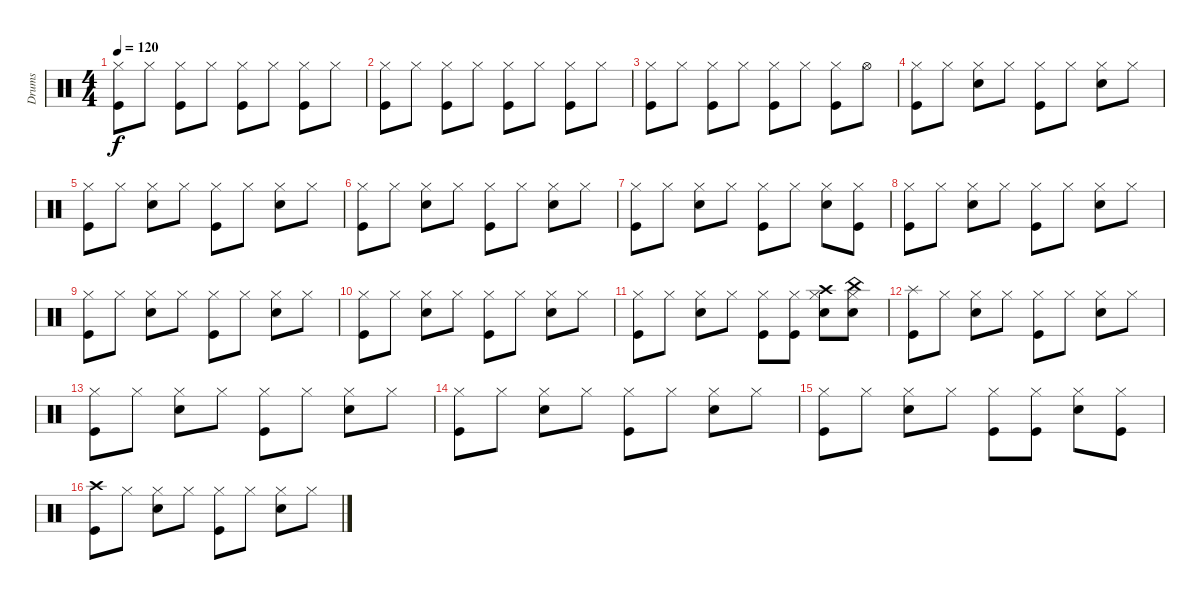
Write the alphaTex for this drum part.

\track ("Drums" "Drums") {instrument percussion}
\staff {score}
\articulation defaults
\ts (4 4)
\tempo 120
\clef neutral
\ks c
("Hi-Hat (closed)" "Kick (hit)").8{dy f} "Hi-Hat (closed)".8 ("Hi-Hat (closed)" "Kick (hit)").8 "Hi-Hat (closed)".8 ("Hi-Hat (closed)" "Kick (hit)").8 "Hi-Hat (closed)".8 ("Hi-Hat (closed)" "Kick (hit)").8 "Hi-Hat (closed)".8 |
("Hi-Hat (closed)" "Kick (hit)").8 "Hi-Hat (closed)".8 ("Hi-Hat (closed)" "Kick (hit)").8 "Hi-Hat (closed)".8 ("Hi-Hat (closed)" "Kick (hit)").8 "Hi-Hat (closed)".8 ("Hi-Hat (closed)" "Kick (hit)").8 "Hi-Hat (closed)".8 |
("Hi-Hat (closed)" "Kick (hit)").8 "Hi-Hat (closed)".8 ("Hi-Hat (closed)" "Kick (hit)").8 "Hi-Hat (closed)".8 ("Hi-Hat (closed)" "Kick (hit)").8 "Hi-Hat (closed)".8 ("Hi-Hat (closed)" "Kick (hit)").8 "Hi-Hat (open)".8 |
("Hi-Hat (closed)" "Kick (hit)").8 "Hi-Hat (closed)".8 ("Hi-Hat (closed)" "Snare (hit) 2").8 "Hi-Hat (closed)".8 ("Hi-Hat (closed)" "Kick (hit)").8 "Hi-Hat (closed)".8 ("Hi-Hat (closed)" "Snare (hit) 2").8 "Hi-Hat (closed)".8 |
("Hi-Hat (closed)" "Kick (hit)").8 "Hi-Hat (closed)".8 ("Hi-Hat (closed)" "Snare (hit) 2").8 "Hi-Hat (closed)".8 ("Hi-Hat (closed)" "Kick (hit)").8 "Hi-Hat (closed)".8 ("Hi-Hat (closed)" "Snare (hit) 2").8 "Hi-Hat (closed)".8 |
("Hi-Hat (closed)" "Kick (hit)").8 "Hi-Hat (closed)".8 ("Hi-Hat (closed)" "Snare (hit) 2").8 "Hi-Hat (closed)".8 ("Hi-Hat (closed)" "Kick (hit)").8 "Hi-Hat (closed)".8 ("Hi-Hat (closed)" "Snare (hit) 2").8 "Hi-Hat (closed)".8 |
("Hi-Hat (closed)" "Kick (hit)").8 "Hi-Hat (closed)".8 ("Hi-Hat (closed)" "Snare (hit) 2").8 "Hi-Hat (closed)".8 ("Hi-Hat (closed)" "Kick (hit)").8 "Hi-Hat (closed)".8 ("Hi-Hat (closed)" "Snare (hit) 2").8 ("Hi-Hat (closed)" "Kick (hit)").8 |
("Hi-Hat (closed)" "Kick (hit)").8 "Hi-Hat (closed)".8 ("Hi-Hat (closed)" "Snare (hit) 2").8 "Hi-Hat (closed)".8 ("Hi-Hat (closed)" "Kick (hit)").8 "Hi-Hat (closed)".8 ("Hi-Hat (closed)" "Snare (hit) 2").8 "Hi-Hat (closed)".8 |
("Hi-Hat (closed)" "Kick (hit)").8 "Hi-Hat (closed)".8 ("Hi-Hat (closed)" "Snare (hit) 2").8 "Hi-Hat (closed)".8 ("Hi-Hat (closed)" "Kick (hit)").8 "Hi-Hat (closed)".8 ("Hi-Hat (closed)" "Snare (hit) 2").8 "Hi-Hat (closed)".8 |
("Hi-Hat (closed)" "Kick (hit)").8 "Hi-Hat (closed)".8 ("Hi-Hat (closed)" "Snare (hit) 2").8 "Hi-Hat (closed)".8 ("Hi-Hat (closed)" "Kick (hit)").8 "Hi-Hat (closed)".8 ("Hi-Hat (closed)" "Snare (hit) 2").8 "Hi-Hat (closed)".8 |
("Hi-Hat (closed)" "Kick (hit)").8 "Hi-Hat (closed)".8 ("Hi-Hat (closed)" "Snare (hit) 2").8 "Hi-Hat (closed)".8 ("Hi-Hat (closed)" "Kick (hit)").8 ("Hi-Hat (closed)" "Kick (hit)").8 ("Hi-Hat (closed)" "Snare (hit) 2" "Crash high (hit)").8 ("Hi-Hat (closed)" "Snare (hit) 2" "China (hit)").8 |
("Kick (hit)" "Splash (hit)").8 "Hi-Hat (closed)".8 ("Hi-Hat (closed)" "Snare (hit) 2").8 "Hi-Hat (closed)".8 ("Hi-Hat (closed)" "Kick (hit)").8 "Hi-Hat (closed)".8 ("Hi-Hat (closed)" "Snare (hit) 2").8 "Hi-Hat (closed)".8 |
("Hi-Hat (closed)" "Kick (hit)").8 "Hi-Hat (closed)".8 ("Hi-Hat (closed)" "Snare (hit) 2").8 "Hi-Hat (closed)".8 ("Hi-Hat (closed)" "Kick (hit)").8 "Hi-Hat (closed)".8 ("Hi-Hat (closed)" "Snare (hit) 2").8 "Hi-Hat (closed)".8 |
("Hi-Hat (closed)" "Kick (hit)").8 "Hi-Hat (closed)".8 ("Hi-Hat (closed)" "Snare (hit) 2").8 "Hi-Hat (closed)".8 ("Hi-Hat (closed)" "Kick (hit)").8 "Hi-Hat (closed)".8 ("Hi-Hat (closed)" "Snare (hit) 2").8 "Hi-Hat (closed)".8 |
("Hi-Hat (closed)" "Kick (hit)").8 "Hi-Hat (closed)".8 ("Hi-Hat (closed)" "Snare (hit) 2").8 "Hi-Hat (closed)".8 ("Hi-Hat (closed)" "Kick (hit)").8 ("Hi-Hat (closed)" "Kick (hit)").8 ("Hi-Hat (closed)" "Snare (hit) 2").8 ("Hi-Hat (closed)" "Kick (hit)").8 |
("Kick (hit)" "Crash high (hit)").8 "Hi-Hat (closed)".8 ("Hi-Hat (closed)" "Snare (hit) 2").8 "Hi-Hat (closed)".8 ("Hi-Hat (closed)" "Kick (hit)").8 "Hi-Hat (closed)".8 ("Hi-Hat (closed)" "Snare (hit) 2").8 "Hi-Hat (closed)".8
